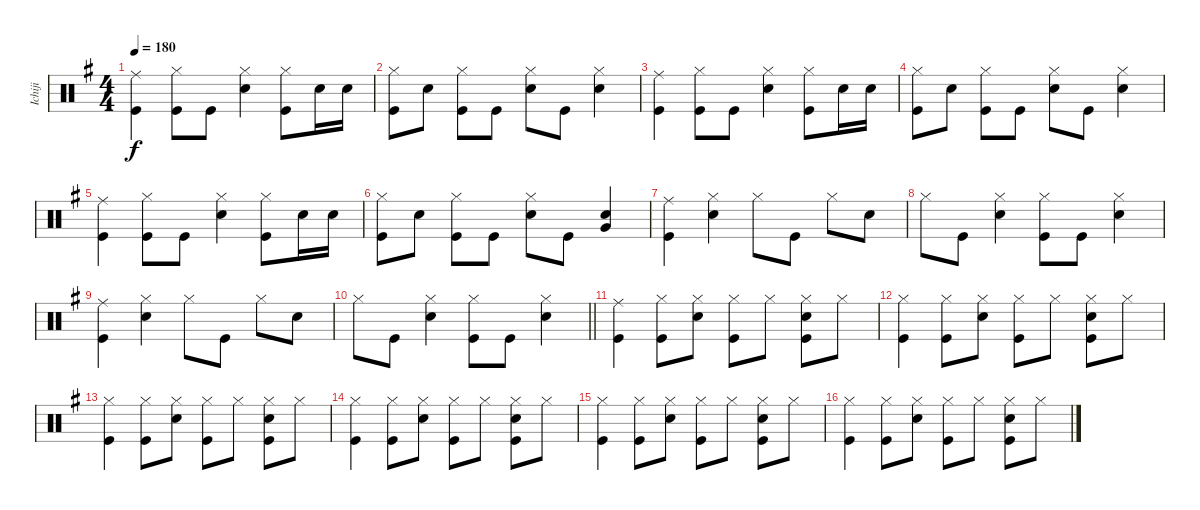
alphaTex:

\track ("Ichiji" "Ichiji") {instrument percussion}
\staff {score}
\articulation defaults
\ts (4 4)
\tempo 180
\clef neutral
\ks g
("Ride (middle)" "Kick (hit)").4{dy f} ("Hi-Hat (closed)" "Kick (hit)").8 "Kick (hit)".8 ("Hi-Hat (closed)" "Snare (hit) 2").4 ("Hi-Hat (closed)" "Kick (hit)").8 "Snare (hit) 2".16 "Snare (hit) 2".16 |
("Hi-Hat (closed)" "Kick (hit)").8 "Snare (hit) 2".8 ("Hi-Hat (closed)" "Kick (hit)").8 "Kick (hit)".8 ("Hi-Hat (closed)" "Snare (hit) 2").8 "Kick (hit)".8 ("Hi-Hat (closed)" "Snare (hit) 2").4 |
("Ride (middle)" "Kick (hit)").4 ("Hi-Hat (closed)" "Kick (hit)").8 "Kick (hit)".8 ("Hi-Hat (closed)" "Snare (hit) 2").4 ("Hi-Hat (closed)" "Kick (hit)").8 "Snare (hit) 2".16 "Snare (hit) 2".16 |
("Hi-Hat (closed)" "Kick (hit)").8 "Snare (hit) 2".8 ("Hi-Hat (closed)" "Kick (hit)").8 "Kick (hit)".8 ("Hi-Hat (closed)" "Snare (hit) 2").8 "Kick (hit)".8 ("Hi-Hat (closed)" "Snare (hit) 2").4 |
("Ride (middle)" "Kick (hit)").4 ("Hi-Hat (closed)" "Kick (hit)").8 "Kick (hit)".8 ("Hi-Hat (closed)" "Snare (hit) 2").4 ("Hi-Hat (closed)" "Kick (hit)").8 "Snare (hit) 2".16 "Snare (hit) 2".16 |
("Hi-Hat (closed)" "Kick (hit)").8 "Snare (hit) 2".8 ("Hi-Hat (closed)" "Kick (hit)").8 "Kick (hit)".8 ("Hi-Hat (closed)" "Snare (hit) 2").8 "Kick (hit)".8 ("Very Low Tom (hit)" "Snare (hit) 2").4 |
("Ride (middle)" "Kick (hit)").4 ("Hi-Hat (closed)" "Snare (hit) 2").4 "Hi-Hat (closed)".8 "Kick (hit)".8 "Hi-Hat (closed)".8 "Snare (hit) 2".8 |
"Hi-Hat (closed)".8 "Kick (hit)".8 ("Hi-Hat (closed)" "Snare (hit) 2").4 ("Kick (hit)" "Hi-Hat (closed)").8 "Kick (hit)".8 ("Hi-Hat (closed)" "Snare (hit) 2").4 |
("Ride (middle)" "Kick (hit)").4 ("Hi-Hat (closed)" "Snare (hit) 2").4 "Hi-Hat (closed)".8 "Kick (hit)".8 "Hi-Hat (closed)".8 "Snare (hit) 2".8 |
\barLineRight lightlight "Hi-Hat (closed)".8 "Kick (hit)".8
("Hi-Hat (closed)" "Snare (hit) 2").4 ("Kick (hit)" "Hi-Hat (closed)").8 "Kick (hit)".8 ("Snare (hit) 2" "Hi-Hat (closed)").4 |
("Ride (middle)" "Kick (hit)").4 ("Hi-Hat (closed)" "Kick (hit)").8 ("Hi-Hat (closed)" "Snare (hit) 2").8 ("Hi-Hat (closed)" "Kick (hit)").8 "Hi-Hat (closed)".8 ("Hi-Hat (closed)" "Snare (hit) 2" "Kick (hit)").8 "Hi-Hat (closed)".8 |
("Hi-Hat (closed)" "Kick (hit)").4 ("Hi-Hat (closed)" "Kick (hit)").8 ("Hi-Hat (closed)" "Snare (hit) 2").8 ("Hi-Hat (closed)" "Kick (hit)").8 "Hi-Hat (closed)".8 ("Hi-Hat (closed)" "Snare (hit) 2" "Kick (hit)").8 "Hi-Hat (closed)".8 |
("Hi-Hat (closed)" "Kick (hit)").4 ("Hi-Hat (closed)" "Kick (hit)").8 ("Hi-Hat (closed)" "Snare (hit) 2").8 ("Hi-Hat (closed)" "Kick (hit)").8 "Hi-Hat (closed)".8 ("Hi-Hat (closed)" "Snare (hit) 2" "Kick (hit)").8 "Hi-Hat (closed)".8 |
("Hi-Hat (closed)" "Kick (hit)").4 ("Hi-Hat (closed)" "Kick (hit)").8 ("Hi-Hat (closed)" "Snare (hit) 2").8 ("Hi-Hat (closed)" "Kick (hit)").8 "Hi-Hat (closed)".8 ("Hi-Hat (closed)" "Snare (hit) 2" "Kick (hit)").8 "Hi-Hat (closed)".8 |
("Hi-Hat (closed)" "Kick (hit)").4 ("Hi-Hat (closed)" "Kick (hit)").8 ("Hi-Hat (closed)" "Snare (hit) 2").8 ("Hi-Hat (closed)" "Kick (hit)").8 "Hi-Hat (closed)".8 ("Hi-Hat (closed)" "Snare (hit) 2" "Kick (hit)").8 "Hi-Hat (closed)".8 |
("Hi-Hat (closed)" "Kick (hit)").4 ("Hi-Hat (closed)" "Kick (hit)").8 ("Hi-Hat (closed)" "Snare (hit) 2").8 ("Hi-Hat (closed)" "Kick (hit)").8 "Hi-Hat (closed)".8 ("Hi-Hat (closed)" "Snare (hit) 2" "Kick (hit)").8 "Hi-Hat (closed)".8
